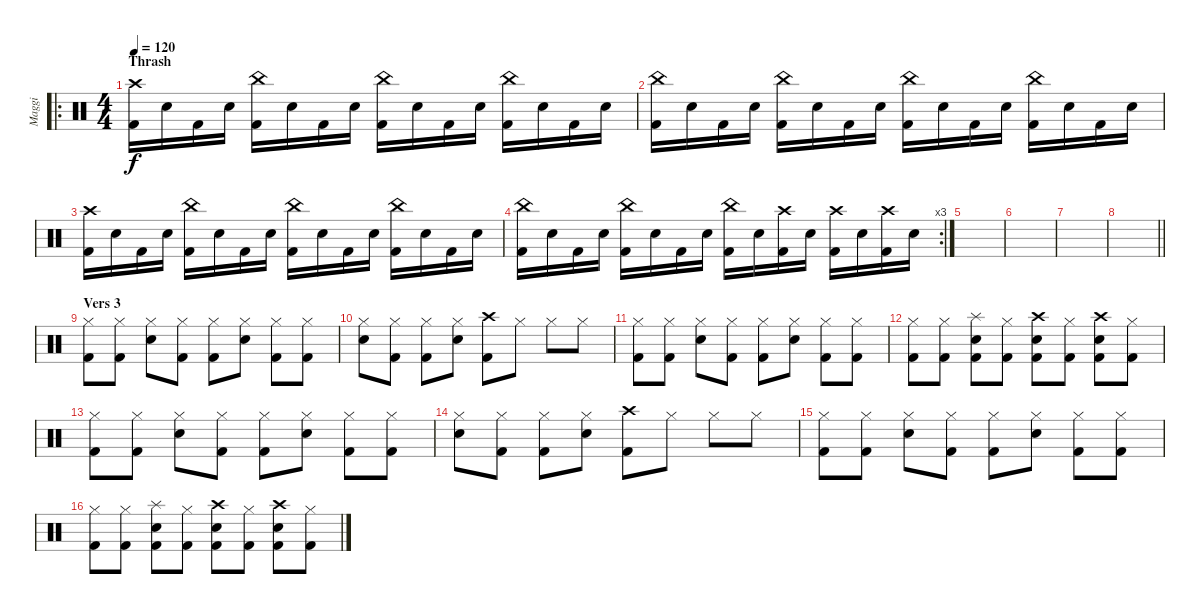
\track ("Maggi" "Maggi") {instrument percussion}
\staff {score}
\articulation defaults
\ro
\ts (4 4)
\section ("" "Thrash")
\tempo 120
\clef neutral
\ks c
("Crash high (hit)" "Kick (hit) 2").16{dy f} "Snare (hit) 2".16 "Kick (hit) 2".16 "Snare (hit) 2".16 ("China (hit)" "Kick (hit) 2").16 "Snare (hit) 2".16 "Kick (hit) 2".16 "Snare (hit) 2".16 ("China (hit)" "Kick (hit) 2").16 "Snare (hit) 2".16 "Kick (hit) 2".16 "Snare (hit) 2".16 ("China (hit)" "Kick (hit) 2").16 "Snare (hit) 2".16 "Kick (hit) 2".16 "Snare (hit) 2".16 |
("China (hit)" "Kick (hit) 2").16 "Snare (hit) 2".16 "Kick (hit) 2".16 "Snare (hit) 2".16 ("China (hit)" "Kick (hit) 2").16 "Snare (hit) 2".16 "Kick (hit) 2".16 "Snare (hit) 2".16 ("China (hit)" "Kick (hit) 2").16 "Snare (hit) 2".16 "Kick (hit) 2".16 "Snare (hit) 2".16 ("China (hit)" "Kick (hit) 2").16 "Snare (hit) 2".16 "Kick (hit) 2".16 "Snare (hit) 2".16 |
("Crash high (hit)" "Kick (hit) 2").16 "Snare (hit) 2".16 "Kick (hit) 2".16 "Snare (hit) 2".16 ("China (hit)" "Kick (hit) 2").16 "Snare (hit) 2".16 "Kick (hit) 2".16 "Snare (hit) 2".16 ("China (hit)" "Kick (hit) 2").16 "Snare (hit) 2".16 "Kick (hit) 2".16 "Snare (hit) 2".16 ("China (hit)" "Kick (hit) 2").16 "Snare (hit) 2".16 "Kick (hit) 2".16 "Snare (hit) 2".16 |
\rc 3
("China (hit)" "Kick (hit) 2").16 "Snare (hit) 2".16 "Kick (hit) 2".16 "Snare (hit) 2".16 ("China (hit)" "Kick (hit) 2").16 "Snare (hit) 2".16 "Kick (hit) 2".16 "Snare (hit) 2".16 ("China (hit)" "Kick (hit) 2").16 "Snare (hit) 2".16 ("Crash high (hit)" "Kick (hit) 2").16 "Snare (hit) 2".16 ("Crash high (hit)" "Kick (hit) 2").16 "Snare (hit) 2".16 ("Crash high (hit)" "Kick (hit) 2").16 "Snare (hit) 2".16 |
|
|
|
\barLineRight lightlight
|
\section ("" "Vers 3")
("Hi-Hat (closed)" "Kick (hit) 2").8 ("Hi-Hat (closed)" "Kick (hit) 2").8 ("Hi-Hat (closed)" "Snare (hit) 2").8 ("Hi-Hat (closed)" "Kick (hit) 2").8 ("Hi-Hat (closed)" "Kick (hit) 2").8 ("Hi-Hat (closed)" "Snare (hit) 2").8 ("Hi-Hat (closed)" "Kick (hit) 2").8 ("Hi-Hat (closed)" "Kick (hit) 2").8 |
("Hi-Hat (closed)" "Snare (hit) 2").8 ("Hi-Hat (closed)" "Kick (hit) 2").8 ("Hi-Hat (closed)" "Kick (hit) 2").8 ("Hi-Hat (closed)" "Snare (hit) 2").8 ("Crash high (hit)" "Kick (hit) 2").8 "Hi-Hat (closed)".8 "Hi-Hat (closed)".8 "Hi-Hat (closed)".8 |
("Hi-Hat (closed)" "Kick (hit) 2").8 ("Hi-Hat (closed)" "Kick (hit) 2").8 ("Hi-Hat (closed)" "Snare (hit) 2").8 ("Hi-Hat (closed)" "Kick (hit) 2").8 ("Hi-Hat (closed)" "Kick (hit) 2").8 ("Hi-Hat (closed)" "Snare (hit) 2").8 ("Hi-Hat (closed)" "Kick (hit) 2").8 ("Hi-Hat (closed)" "Kick (hit) 2").8 |
("Hi-Hat (closed)" "Kick (hit) 2").8 ("Hi-Hat (closed)" "Kick (hit) 2").8 ("Splash (hit)" "Snare (hit) 2" "Kick (hit) 2").8 ("Hi-Hat (closed)" "Kick (hit) 2").8 ("Crash high (hit)" "Snare (hit) 2" "Kick (hit) 2").8 ("Hi-Hat (closed)" "Kick (hit) 2").8 ("Crash high (hit)" "Snare (hit) 2" "Kick (hit) 2").8 ("Hi-Hat (closed)" "Kick (hit) 2").8 |
("Hi-Hat (closed)" "Kick (hit) 2").8 ("Hi-Hat (closed)" "Kick (hit) 2").8 ("Hi-Hat (closed)" "Snare (hit) 2").8 ("Hi-Hat (closed)" "Kick (hit) 2").8 ("Hi-Hat (closed)" "Kick (hit) 2").8 ("Hi-Hat (closed)" "Snare (hit) 2").8 ("Hi-Hat (closed)" "Kick (hit) 2").8 ("Hi-Hat (closed)" "Kick (hit) 2").8 |
("Hi-Hat (closed)" "Snare (hit) 2").8 ("Hi-Hat (closed)" "Kick (hit) 2").8 ("Hi-Hat (closed)" "Kick (hit) 2").8 ("Hi-Hat (closed)" "Snare (hit) 2").8 ("Crash high (hit)" "Kick (hit) 2").8 "Hi-Hat (closed)".8 "Hi-Hat (closed)".8 "Hi-Hat (closed)".8 |
("Hi-Hat (closed)" "Kick (hit) 2").8 ("Hi-Hat (closed)" "Kick (hit) 2").8 ("Hi-Hat (closed)" "Snare (hit) 2").8 ("Hi-Hat (closed)" "Kick (hit) 2").8 ("Hi-Hat (closed)" "Kick (hit) 2").8 ("Hi-Hat (closed)" "Snare (hit) 2").8 ("Hi-Hat (closed)" "Kick (hit) 2").8 ("Hi-Hat (closed)" "Kick (hit) 2").8 |
("Hi-Hat (closed)" "Kick (hit) 2").8 ("Hi-Hat (closed)" "Kick (hit) 2").8 ("Splash (hit)" "Snare (hit) 2" "Kick (hit) 2").8 ("Hi-Hat (closed)" "Kick (hit) 2").8 ("Crash high (hit)" "Snare (hit) 2" "Kick (hit) 2").8 ("Hi-Hat (closed)" "Kick (hit) 2").8 ("Crash high (hit)" "Snare (hit) 2" "Kick (hit) 2").8 ("Hi-Hat (closed)" "Kick (hit) 2").8
